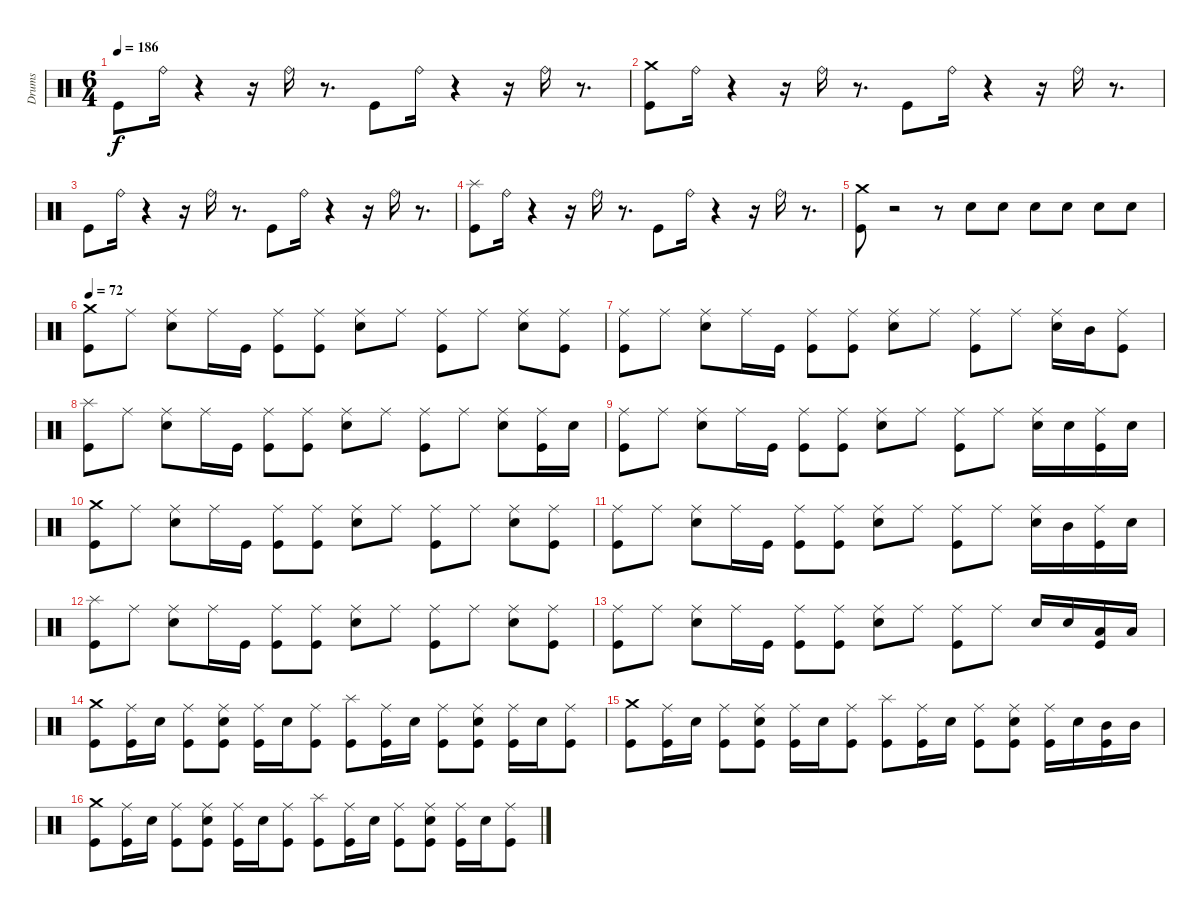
\track ("Drums" "Drums") {instrument percussion}
\staff {score}
\articulation defaults
\ts (6 4)
\tempo 186
\clef neutral
\ks c "Kick (hit)".8{dy f} "Ride (bell)".16
r.4 r.16 "Ride (bell)".16 r.8{d} "Kick (hit)".8 "Ride (bell)".16 r.4 r.16 "Ride (bell)".16 r.8{d} |
("Kick (hit)" "Crash medium (hit)").8 "Ride (bell)".16 r.4 r.16 "Ride (bell)".16 r.8{d} "Kick (hit)".8 "Ride (bell)".16 r.4 r.16 "Ride (bell)".16 r.8{d} |
"Kick (hit)".8 "Ride (bell)".16 r.4 r.16 "Ride (bell)".16 r.8{d} "Kick (hit)".8 "Ride (bell)".16 r.4 r.16 "Ride (bell)".16 r.8{d} |
("Kick (hit)" "Splash (hit)").8 "Ride (bell)".16 r.4 r.16 "Ride (bell)".16 r.8{d} "Kick (hit)".8 "Ride (bell)".16 r.4 r.16 "Ride (bell)".16 r.8{d} |
("Crash medium (hit)" "Kick (hit)").8 r.2 r.8 "Snare (hit) 2".8 "Snare (hit) 2".8 "Snare (hit) 2".8 "Snare (hit) 2".8 "Snare (hit) 2".8 "Snare (hit) 2".8 |
\tempo 72
("Kick (hit)" "Crash medium (hit)").8 "Ride (middle)".8 ("Snare (hit) 2" "Ride (middle)").8 "Ride (middle)".16 "Kick (hit)".16 ("Ride (middle)" "Kick (hit)").8 ("Kick (hit)" "Ride (middle)").8 ("Ride (middle)" "Snare (hit) 2").8 "Ride (middle)".8 ("Ride (middle)" "Kick (hit)").8 "Ride (middle)".8 ("Ride (middle)" "Snare (hit) 2").8 ("Kick (hit)" "Ride (middle)").8 |
("Kick (hit)" "Ride (middle)").8 "Ride (middle)".8 ("Snare (hit) 2" "Ride (middle)").8 "Ride (middle)".16 "Kick (hit)".16 ("Kick (hit)" "Ride (middle)").8 ("Ride (middle)" "Kick (hit)").8 ("Snare (hit) 2" "Ride (middle)").8 "Ride (middle)".8 ("Kick (hit)" "Ride (middle)").8 "Ride (middle)".8 ("Snare (hit) 2" "Ride (middle)").16 "Mid Tom (hit)".16 ("Kick (hit)" "Ride (middle)").8 |
("Splash (hit)" "Kick (hit)").8 "Ride (middle)".8 ("Snare (hit) 2" "Ride (middle)").8 "Ride (middle)".16 "Kick (hit)".16 ("Kick (hit)" "Ride (middle)").8 ("Kick (hit)" "Ride (middle)").8 ("Snare (hit) 2" "Ride (middle)").8 "Ride (middle)".8 ("Kick (hit)" "Ride (middle)").8 "Ride (middle)".8 ("Snare (hit) 2" "Ride (middle)").8 ("Kick (hit)" "Ride (middle)").16 "Snare (hit) 2".16 |
("Kick (hit)" "Ride (middle)").8 "Ride (middle)".8 ("Snare (hit) 2" "Ride (middle)").8 "Ride (middle)".16 "Kick (hit)".16 ("Kick (hit)" "Ride (middle)").8 ("Ride (middle)" "Kick (hit)").8 ("Snare (hit) 2" "Ride (middle)").8 "Ride (middle)".8 ("Kick (hit)" "Ride (middle)").8 "Ride (middle)".8 ("Ride (middle)" "Snare (hit) 2").16 "Snare (hit) 2".16 ("Kick (hit)" "Ride (middle)").16 "Snare (hit) 2".16 |
("Crash medium (hit)" "Kick (hit)").8 "Ride (middle)".8 ("Ride (middle)" "Snare (hit) 2").8 "Ride (middle)".16 "Kick (hit)".16 ("Kick (hit)" "Ride (middle)").8 ("Ride (middle)" "Kick (hit)").8 ("Snare (hit) 2" "Ride (middle)").8 "Ride (middle)".8 ("Kick (hit)" "Ride (middle)").8 "Ride (middle)".8 ("Snare (hit) 2" "Ride (middle)").8 ("Ride (middle)" "Kick (hit)").8 |
("Kick (hit)" "Ride (middle)").8 "Ride (middle)".8 ("Snare (hit) 2" "Ride (middle)").8 "Ride (middle)".16 "Kick (hit)".16 ("Ride (middle)" "Kick (hit)").8 ("Ride (middle)" "Kick (hit)").8 ("Ride (middle)" "Snare (hit) 2").8 "Ride (middle)".8 ("Kick (hit)" "Ride (middle)").8 "Ride (middle)".8 ("Snare (hit) 2" "Ride (middle)").16 "Mid Tom (hit)".16 ("Kick (hit)" "Ride (middle)").16 "Snare (hit) 2".16 |
("Splash (hit)" "Kick (hit)").8 "Ride (middle)".8 ("Snare (hit) 2" "Ride (middle)").8 "Ride (middle)".16 "Kick (hit)".16 ("Kick (hit)" "Ride (middle)").8 ("Ride (middle)" "Kick (hit)").8 ("Snare (hit) 2" "Ride (middle)").8 "Ride (middle)".8 ("Kick (hit)" "Ride (middle)").8 "Ride (middle)".8 ("Snare (hit) 2" "Ride (middle)").8 ("Kick (hit)" "Ride (middle)").8 |
("Kick (hit)" "Ride (middle)").8 "Ride (middle)".8 ("Snare (hit) 2" "Ride (middle)").8 "Ride (middle)".16 "Kick (hit)".16 ("Ride (middle)" "Kick (hit)").8 ("Kick (hit)" "Ride (middle)").8 ("Ride (middle)" "Snare (hit) 2").8 "Ride (middle)".8 ("Kick (hit)" "Ride (middle)").8 "Ride (middle)".8 "Snare (hit) 2".16 "Snare (hit) 2".16 ("Low Tom (hit)" "Kick (hit)").16 "Low Tom (hit)".16 |
("Kick (hit)" "Crash medium (hit)").8 ("Kick (hit)" "Ride (middle)").16 "Snare (hit) 2".16 ("Ride (middle)" "Kick (hit)").8 ("Snare (hit) 2" "Ride (middle)" "Kick (hit)").8 ("Kick (hit)" "Ride (middle)").16 "Snare (hit) 2".16 ("Kick (hit)" "Ride (middle)").8 ("Kick (hit)" "Splash (hit)").8 ("Ride (middle)" "Kick (hit)").16 "Snare (hit) 2".16 ("Kick (hit)" "Ride (middle)").8 ("Ride (middle)" "Snare (hit) 2" "Kick (hit)").8 ("Ride (middle)" "Kick (hit)").16 "Snare (hit) 2".16 ("Kick (hit)" "Ride (middle)").8 |
("Crash medium (hit)" "Kick (hit)").8 ("Ride (middle)" "Kick (hit)").16 "Snare (hit) 2".16 ("Kick (hit)" "Ride (middle)").8 ("Ride (middle)" "Snare (hit) 2" "Kick (hit)").8 ("Ride (middle)" "Kick (hit)").16 "Snare (hit) 2".16 ("Kick (hit)" "Ride (middle)").8 ("Kick (hit)" "Splash (hit)").8 ("Ride (middle)" "Kick (hit)").16 "Snare (hit) 2".16 ("Kick (hit)" "Ride (middle)").8 ("Ride (middle)" "Snare (hit) 2" "Kick (hit)").8 ("Ride (middle)" "Kick (hit)").16 "Snare (hit) 2".16 ("Kick (hit)" "Mid Tom (hit)").16 "Mid Tom (hit)".16 |
("Crash medium (hit)" "Kick (hit)").8 ("Ride (middle)" "Kick (hit)").16 "Snare (hit) 2".16 ("Kick (hit)" "Ride (middle)").8 ("Ride (middle)" "Snare (hit) 2" "Kick (hit)").8 ("Ride (middle)" "Kick (hit)").16 "Snare (hit) 2".16 ("Kick (hit)" "Ride (middle)").8 ("Splash (hit)" "Kick (hit)").8 ("Ride (middle)" "Kick (hit)").16 "Snare (hit) 2".16 ("Ride (middle)" "Kick (hit)").8 ("Ride (middle)" "Snare (hit) 2" "Kick (hit)").8 ("Kick (hit)" "Ride (middle)").16 "Snare (hit) 2".16 ("Ride (middle)" "Kick (hit)").8
